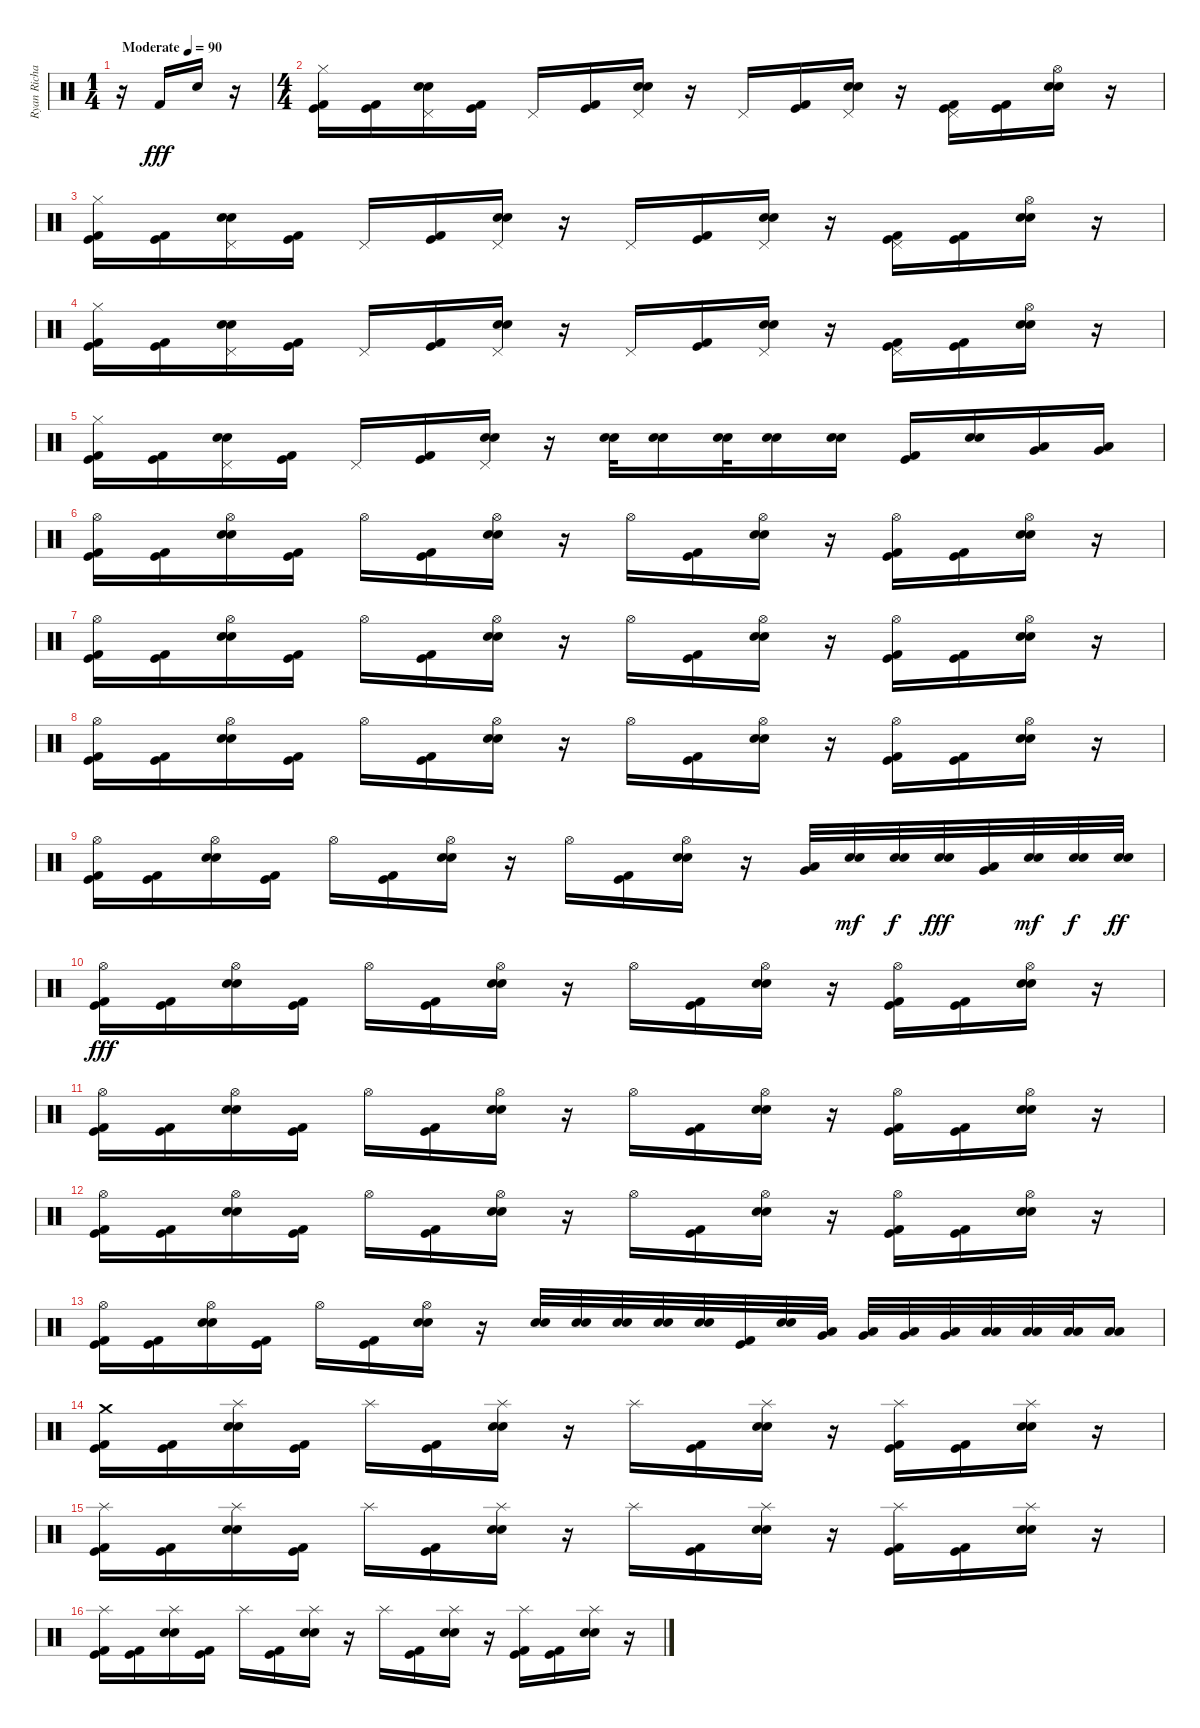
\track ("Ryan Richards" "Ryan Richa") {instrument percussion}
\staff {score}
\articulation defaults
\ts (1 4)
\tempo (90 "Moderate")
\clef neutral
\ks c
r.16{dy fff} "Kick (hit) 2".16 "Electric Snare (hit)".16 r.16 |
\ts (4 4)
("Kick (hit)" "Hi-Hat (closed)" "Kick (hit) 2").16 ("Kick (hit)" "Kick (hit) 2").16 ("Pedal Hi-Hat (hit)" "Snare (hit) 2" "Electric Snare (hit)").16 ("Kick (hit)" "Kick (hit) 2").16 "Pedal Hi-Hat (hit)".16 ("Kick (hit)" "Kick (hit) 2").16 ("Pedal Hi-Hat (hit)" "Snare (hit) 2" "Electric Snare (hit)").16 r.16 "Pedal Hi-Hat (hit)".16 ("Kick (hit)" "Kick (hit) 2").16 ("Pedal Hi-Hat (hit)" "Snare (hit) 2" "Electric Snare (hit)").16 r.16 ("Kick (hit)" "Pedal Hi-Hat (hit)" "Kick (hit) 2").16 ("Kick (hit)" "Kick (hit) 2").16 ("Hi-Hat (open)" "Snare (hit) 2" "Electric Snare (hit)").16 r.16 |
("Kick (hit)" "Hi-Hat (closed)" "Kick (hit) 2").16 ("Kick (hit)" "Kick (hit) 2").16 ("Pedal Hi-Hat (hit)" "Snare (hit) 2" "Electric Snare (hit)").16 ("Kick (hit)" "Kick (hit) 2").16 "Pedal Hi-Hat (hit)".16 ("Kick (hit)" "Kick (hit) 2").16 ("Pedal Hi-Hat (hit)" "Snare (hit) 2" "Electric Snare (hit)").16 r.16 "Pedal Hi-Hat (hit)".16 ("Kick (hit)" "Kick (hit) 2").16 ("Pedal Hi-Hat (hit)" "Snare (hit) 2" "Electric Snare (hit)").16 r.16 ("Kick (hit)" "Pedal Hi-Hat (hit)" "Kick (hit) 2").16 ("Kick (hit)" "Kick (hit) 2").16 ("Hi-Hat (open)" "Snare (hit) 2" "Electric Snare (hit)").16 r.16 |
("Kick (hit)" "Hi-Hat (closed)" "Kick (hit) 2").16 ("Kick (hit)" "Kick (hit) 2").16 ("Pedal Hi-Hat (hit)" "Snare (hit) 2" "Electric Snare (hit)").16 ("Kick (hit)" "Kick (hit) 2").16 "Pedal Hi-Hat (hit)".16 ("Kick (hit)" "Kick (hit) 2").16 ("Pedal Hi-Hat (hit)" "Snare (hit) 2" "Electric Snare (hit)").16 r.16 "Pedal Hi-Hat (hit)".16 ("Kick (hit)" "Kick (hit) 2").16 ("Pedal Hi-Hat (hit)" "Snare (hit) 2" "Electric Snare (hit)").16 r.16 ("Kick (hit)" "Pedal Hi-Hat (hit)" "Kick (hit) 2").16 ("Kick (hit)" "Kick (hit) 2").16 ("Hi-Hat (open)" "Snare (hit) 2" "Electric Snare (hit)").16 r.16 |
("Kick (hit)" "Hi-Hat (closed)" "Kick (hit) 2").16 ("Kick (hit)" "Kick (hit) 2").16 ("Pedal Hi-Hat (hit)" "Snare (hit) 2" "Electric Snare (hit)").16 ("Kick (hit)" "Kick (hit) 2").16 "Pedal Hi-Hat (hit)".16 ("Kick (hit)" "Kick (hit) 2").16 ("Pedal Hi-Hat (hit)" "Snare (hit) 2" "Electric Snare (hit)").16 r.16 ("Snare (hit) 2" "Electric Snare (hit)").32 ("Snare (hit) 2" "Electric Snare (hit)").16 ("Snare (hit) 2" "Electric Snare (hit)").32 ("Snare (hit) 2" "Electric Snare (hit)").16 ("Snare (hit) 2" "Electric Snare (hit)").16 ("Kick (hit)" "Kick (hit) 2").16 ("Snare (hit) 2" "Electric Snare (hit)").16 ("Very Low Tom (hit)" "Low Floor Tom (hit)").16 ("Very Low Tom (hit)" "Low Floor Tom (hit)").16 |
("Kick (hit)" "Hi-Hat (open)" "Kick (hit) 2").16 ("Kick (hit)" "Kick (hit) 2").16 ("Hi-Hat (open)" "Snare (hit) 2" "Electric Snare (hit)").16 ("Kick (hit)" "Kick (hit) 2").16 "Hi-Hat (open)".16 ("Kick (hit)" "Kick (hit) 2").16 ("Hi-Hat (open)" "Snare (hit) 2" "Electric Snare (hit)").16 r.16 "Hi-Hat (open)".16 ("Kick (hit)" "Kick (hit) 2").16 ("Hi-Hat (open)" "Snare (hit) 2" "Electric Snare (hit)").16 r.16 ("Kick (hit)" "Hi-Hat (open)" "Kick (hit) 2").16 ("Kick (hit)" "Kick (hit) 2").16 ("Hi-Hat (open)" "Snare (hit) 2" "Electric Snare (hit)").16 r.16 |
("Kick (hit)" "Hi-Hat (open)" "Kick (hit) 2").16 ("Kick (hit)" "Kick (hit) 2").16 ("Hi-Hat (open)" "Snare (hit) 2" "Electric Snare (hit)").16 ("Kick (hit)" "Kick (hit) 2").16 "Hi-Hat (open)".16 ("Kick (hit)" "Kick (hit) 2").16 ("Hi-Hat (open)" "Snare (hit) 2" "Electric Snare (hit)").16 r.16 "Hi-Hat (open)".16 ("Kick (hit)" "Kick (hit) 2").16 ("Hi-Hat (open)" "Snare (hit) 2" "Electric Snare (hit)").16 r.16 ("Kick (hit)" "Hi-Hat (open)" "Kick (hit) 2").16 ("Kick (hit)" "Kick (hit) 2").16 ("Hi-Hat (open)" "Snare (hit) 2" "Electric Snare (hit)").16 r.16 |
("Kick (hit)" "Hi-Hat (open)" "Kick (hit) 2").16 ("Kick (hit)" "Kick (hit) 2").16 ("Hi-Hat (open)" "Snare (hit) 2" "Electric Snare (hit)").16 ("Kick (hit)" "Kick (hit) 2").16 "Hi-Hat (open)".16 ("Kick (hit)" "Kick (hit) 2").16 ("Hi-Hat (open)" "Snare (hit) 2" "Electric Snare (hit)").16 r.16 "Hi-Hat (open)".16 ("Kick (hit)" "Kick (hit) 2").16 ("Hi-Hat (open)" "Snare (hit) 2" "Electric Snare (hit)").16 r.16 ("Kick (hit)" "Hi-Hat (open)" "Kick (hit) 2").16 ("Kick (hit)" "Kick (hit) 2").16 ("Hi-Hat (open)" "Snare (hit) 2" "Electric Snare (hit)").16 r.16 |
("Kick (hit)" "Hi-Hat (open)" "Kick (hit) 2").16 ("Kick (hit)" "Kick (hit) 2").16 ("Hi-Hat (open)" "Snare (hit) 2" "Electric Snare (hit)").16 ("Kick (hit)" "Kick (hit) 2").16 "Hi-Hat (open)".16 ("Kick (hit)" "Kick (hit) 2").16 ("Hi-Hat (open)" "Snare (hit) 2" "Electric Snare (hit)").16 r.16 "Hi-Hat (open)".16 ("Kick (hit)" "Kick (hit) 2").16 ("Hi-Hat (open)" "Snare (hit) 2" "Electric Snare (hit)").16 r.16 ("Very Low Tom (hit)" "Low Floor Tom (hit)").32 ("Snare (hit) 2" "Electric Snare (hit)").32{dy mf} ("Snare (hit) 2" "Electric Snare (hit)").32{dy f} ("Snare (hit) 2" "Electric Snare (hit)").32{dy fff} ("Very Low Tom (hit)" "Low Floor Tom (hit)").32 ("Snare (hit) 2" "Electric Snare (hit)").32{dy mf} ("Snare (hit) 2" "Electric Snare (hit)").32{dy f} ("Snare (hit) 2" "Electric Snare (hit)").32{dy ff} |
("Kick (hit)" "Hi-Hat (open)" "Kick (hit) 2").16{dy fff} ("Kick (hit)" "Kick (hit) 2").16 ("Hi-Hat (open)" "Snare (hit) 2" "Electric Snare (hit)").16 ("Kick (hit)" "Kick (hit) 2").16 "Hi-Hat (open)".16 ("Kick (hit)" "Kick (hit) 2").16 ("Hi-Hat (open)" "Snare (hit) 2" "Electric Snare (hit)").16 r.16 "Hi-Hat (open)".16 ("Kick (hit)" "Kick (hit) 2").16 ("Hi-Hat (open)" "Snare (hit) 2" "Electric Snare (hit)").16 r.16 ("Kick (hit)" "Hi-Hat (open)" "Kick (hit) 2").16 ("Kick (hit)" "Kick (hit) 2").16 ("Hi-Hat (open)" "Snare (hit) 2" "Electric Snare (hit)").16 r.16 |
("Kick (hit)" "Hi-Hat (open)" "Kick (hit) 2").16 ("Kick (hit)" "Kick (hit) 2").16 ("Hi-Hat (open)" "Snare (hit) 2" "Electric Snare (hit)").16 ("Kick (hit)" "Kick (hit) 2").16 "Hi-Hat (open)".16 ("Kick (hit)" "Kick (hit) 2").16 ("Hi-Hat (open)" "Snare (hit) 2" "Electric Snare (hit)").16 r.16 "Hi-Hat (open)".16 ("Kick (hit)" "Kick (hit) 2").16 ("Hi-Hat (open)" "Snare (hit) 2" "Electric Snare (hit)").16 r.16 ("Kick (hit)" "Hi-Hat (open)" "Kick (hit) 2").16 ("Kick (hit)" "Kick (hit) 2").16 ("Hi-Hat (open)" "Snare (hit) 2" "Electric Snare (hit)").16 r.16 |
("Kick (hit)" "Hi-Hat (open)" "Kick (hit) 2").16 ("Kick (hit)" "Kick (hit) 2").16 ("Hi-Hat (open)" "Snare (hit) 2" "Electric Snare (hit)").16 ("Kick (hit)" "Kick (hit) 2").16 "Hi-Hat (open)".16 ("Kick (hit)" "Kick (hit) 2").16 ("Hi-Hat (open)" "Snare (hit) 2" "Electric Snare (hit)").16 r.16 "Hi-Hat (open)".16 ("Kick (hit)" "Kick (hit) 2").16 ("Hi-Hat (open)" "Snare (hit) 2" "Electric Snare (hit)").16 r.16 ("Kick (hit)" "Hi-Hat (open)" "Kick (hit) 2").16 ("Kick (hit)" "Kick (hit) 2").16 ("Hi-Hat (open)" "Snare (hit) 2" "Electric Snare (hit)").16 r.16 |
("Kick (hit)" "Hi-Hat (open)" "Kick (hit) 2").16 ("Kick (hit)" "Kick (hit) 2").16 ("Hi-Hat (open)" "Snare (hit) 2" "Electric Snare (hit)").16 ("Kick (hit)" "Kick (hit) 2").16 "Hi-Hat (open)".16 ("Kick (hit)" "Kick (hit) 2").16 ("Hi-Hat (open)" "Snare (hit) 2" "Electric Snare (hit)").16 r.16 ("Snare (hit) 2" "Electric Snare (hit)").32 ("Snare (hit) 2" "Electric Snare (hit)").32 ("Snare (hit) 2" "Electric Snare (hit)").32 ("Snare (hit) 2" "Electric Snare (hit)").32 ("Snare (hit) 2" "Electric Snare (hit)").32 ("Kick (hit)" "Kick (hit) 2").32 ("Snare (hit) 2" "Electric Snare (hit)").32 ("Very Low Tom (hit)" "Low Floor Tom (hit)").32 ("Very Low Tom (hit)" "Low Floor Tom (hit)").32 ("Very Low Tom (hit)" "Low Floor Tom (hit)").32 ("Very Low Tom (hit)" "Low Floor Tom (hit)").32 ("Low Floor Tom (hit)" "Low Floor Tom (hit)").32 ("Low Floor Tom (hit)" "Low Floor Tom (hit)").32 ("Low Floor Tom (hit)" "Low Floor Tom (hit)").32 ("Low Floor Tom (hit)" "Low Floor Tom (hit)").16 |
("Kick (hit)" "Crash medium (hit)" "Kick (hit) 2").16 ("Kick (hit)" "Kick (hit) 2").16 ("Splash (hit)" "Snare (hit) 2" "Electric Snare (hit)").16 ("Kick (hit)" "Kick (hit) 2").16 "Splash (hit)".16 ("Kick (hit)" "Kick (hit) 2").16 ("Splash (hit)" "Snare (hit) 2" "Electric Snare (hit)").16 r.16 "Splash (hit)".16 ("Kick (hit)" "Kick (hit) 2").16 ("Splash (hit)" "Snare (hit) 2" "Electric Snare (hit)").16 r.16 ("Kick (hit)" "Splash (hit)" "Kick (hit) 2").16 ("Kick (hit)" "Kick (hit) 2").16 ("Splash (hit)" "Snare (hit) 2" "Electric Snare (hit)").16 r.16 |
("Kick (hit)" "Splash (hit)" "Kick (hit) 2").16 ("Kick (hit)" "Kick (hit) 2").16 ("Splash (hit)" "Snare (hit) 2" "Electric Snare (hit)").16 ("Kick (hit)" "Kick (hit) 2").16 "Splash (hit)".16 ("Kick (hit)" "Kick (hit) 2").16 ("Splash (hit)" "Snare (hit) 2" "Electric Snare (hit)").16 r.16 "Splash (hit)".16 ("Kick (hit)" "Kick (hit) 2").16 ("Splash (hit)" "Snare (hit) 2" "Electric Snare (hit)").16 r.16 ("Kick (hit)" "Splash (hit)" "Kick (hit) 2").16 ("Kick (hit)" "Kick (hit) 2").16 ("Splash (hit)" "Snare (hit) 2" "Electric Snare (hit)").16 r.16 |
("Kick (hit)" "Splash (hit)" "Kick (hit) 2").16 ("Kick (hit)" "Kick (hit) 2").16 ("Splash (hit)" "Snare (hit) 2" "Electric Snare (hit)").16 ("Kick (hit)" "Kick (hit) 2").16 "Splash (hit)".16 ("Kick (hit)" "Kick (hit) 2").16 ("Splash (hit)" "Snare (hit) 2" "Electric Snare (hit)").16 r.16 "Splash (hit)".16 ("Kick (hit)" "Kick (hit) 2").16 ("Splash (hit)" "Snare (hit) 2" "Electric Snare (hit)").16 r.16 ("Kick (hit)" "Splash (hit)" "Kick (hit) 2").16 ("Kick (hit)" "Kick (hit) 2").16 ("Splash (hit)" "Snare (hit) 2" "Electric Snare (hit)").16 r.16
